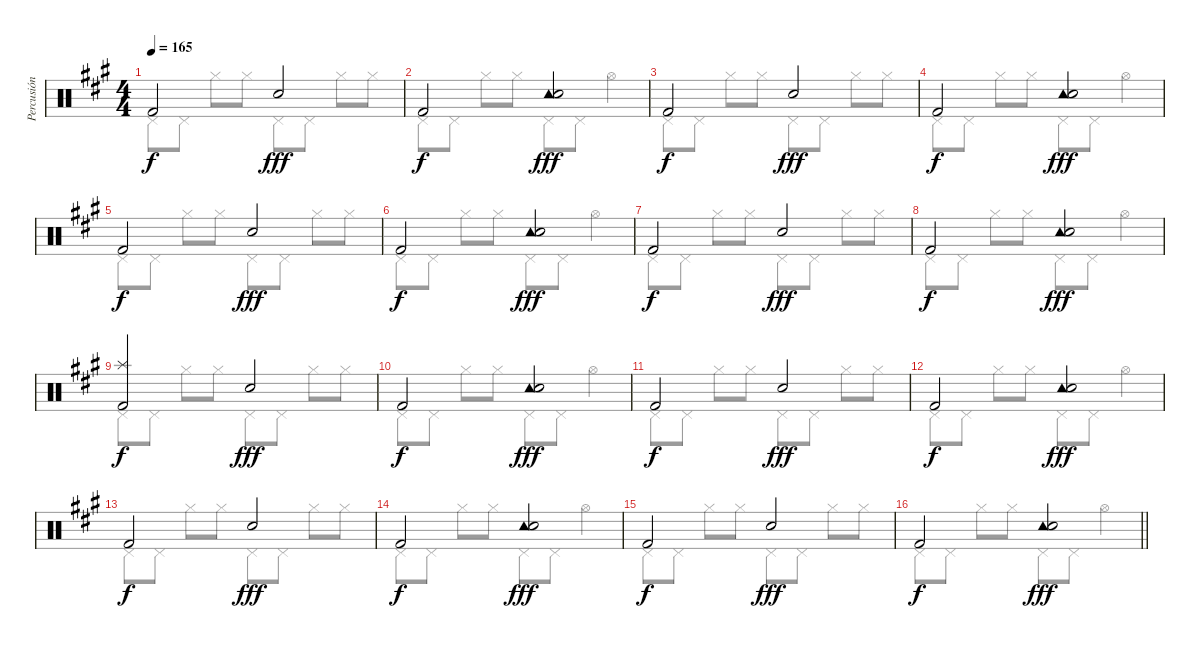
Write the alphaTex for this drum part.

\track ("Percusión" "Percusión") {instrument percussion}
\staff {score}
\articulation defaults
\voice
\ts (4 4)
\tempo 165
\clef neutral
\ks a "Kick (hit) 2".2{dy f} "Snare (hit) 2".2{dy fff}
|
"Kick (hit) 2".2{dy f} ("Tambourine (hit)" "Snare (hit) 2").2{dy fff} |
"Kick (hit) 2".2{dy f} "Snare (hit) 2".2{dy fff} |
"Kick (hit) 2".2{dy f} ("Tambourine (hit)" "Snare (hit) 2").2{dy fff} |
"Kick (hit) 2".2{dy f} "Snare (hit) 2".2{dy fff} |
"Kick (hit) 2".2{dy f} ("Tambourine (hit)" "Snare (hit) 2").2{dy fff} |
"Kick (hit) 2".2{dy f} "Snare (hit) 2".2{dy fff} |
"Kick (hit) 2".2{dy f} ("Tambourine (hit)" "Snare (hit) 2").2{dy fff} |
("Splash (hit)" "Kick (hit) 2").2{dy f} "Snare (hit) 2".2{dy fff} |
"Kick (hit) 2".2{dy f} ("Tambourine (hit)" "Snare (hit) 2").2{dy fff} |
"Kick (hit) 2".2{dy f} "Snare (hit) 2".2{dy fff} |
"Kick (hit) 2".2{dy f} ("Tambourine (hit)" "Snare (hit) 2").2{dy fff} |
"Kick (hit) 2".2{dy f} "Snare (hit) 2".2{dy fff} |
"Kick (hit) 2".2{dy f} ("Tambourine (hit)" "Snare (hit) 2").2{dy fff} |
"Kick (hit) 2".2{dy f} "Snare (hit) 2".2{dy fff} |
\barLineRight lightlight "Kick (hit) 2".2{dy f}
("Tambourine (hit)" "Snare (hit) 2").2{dy fff}
\voice
\clef neutral
\ottava regular
\simile none
\ks a "Pedal Hi-Hat (hit)".8{dy f} "Pedal Hi-Hat (hit)".8 "Hi-Hat (closed)".8 "Hi-Hat (closed)".8 "Pedal Hi-Hat (hit)".8 "Pedal Hi-Hat (hit)".8 "Hi-Hat (closed)".8 "Hi-Hat (closed)".8
|
"Pedal Hi-Hat (hit)".8 "Pedal Hi-Hat (hit)".8 "Hi-Hat (closed)".8 "Hi-Hat (closed)".8 "Pedal Hi-Hat (hit)".8 "Pedal Hi-Hat (hit)".8 "Hi-Hat (open)".4 |
"Pedal Hi-Hat (hit)".8 "Pedal Hi-Hat (hit)".8 "Hi-Hat (closed)".8 "Hi-Hat (closed)".8 "Pedal Hi-Hat (hit)".8 "Pedal Hi-Hat (hit)".8 "Hi-Hat (closed)".8 "Hi-Hat (closed)".8 |
"Pedal Hi-Hat (hit)".8 "Pedal Hi-Hat (hit)".8 "Hi-Hat (closed)".8 "Hi-Hat (closed)".8 "Pedal Hi-Hat (hit)".8 "Pedal Hi-Hat (hit)".8 "Hi-Hat (open)".4 |
"Pedal Hi-Hat (hit)".8 "Pedal Hi-Hat (hit)".8 "Hi-Hat (closed)".8 "Hi-Hat (closed)".8 "Pedal Hi-Hat (hit)".8 "Pedal Hi-Hat (hit)".8 "Hi-Hat (closed)".8 "Hi-Hat (closed)".8 |
"Pedal Hi-Hat (hit)".8 "Pedal Hi-Hat (hit)".8 "Hi-Hat (closed)".8 "Hi-Hat (closed)".8 "Pedal Hi-Hat (hit)".8 "Pedal Hi-Hat (hit)".8 "Hi-Hat (open)".4 |
"Pedal Hi-Hat (hit)".8 "Pedal Hi-Hat (hit)".8 "Hi-Hat (closed)".8 "Hi-Hat (closed)".8 "Pedal Hi-Hat (hit)".8 "Pedal Hi-Hat (hit)".8 "Hi-Hat (closed)".8 "Hi-Hat (closed)".8 |
"Pedal Hi-Hat (hit)".8 "Pedal Hi-Hat (hit)".8 "Hi-Hat (closed)".8 "Hi-Hat (closed)".8 "Pedal Hi-Hat (hit)".8 "Pedal Hi-Hat (hit)".8 "Hi-Hat (open)".4 |
"Pedal Hi-Hat (hit)".8 "Pedal Hi-Hat (hit)".8 "Hi-Hat (closed)".8 "Hi-Hat (closed)".8 "Pedal Hi-Hat (hit)".8 "Pedal Hi-Hat (hit)".8 "Hi-Hat (closed)".8 "Hi-Hat (closed)".8 |
"Pedal Hi-Hat (hit)".8 "Pedal Hi-Hat (hit)".8 "Hi-Hat (closed)".8 "Hi-Hat (closed)".8 "Pedal Hi-Hat (hit)".8 "Pedal Hi-Hat (hit)".8 "Hi-Hat (open)".4 |
"Pedal Hi-Hat (hit)".8 "Pedal Hi-Hat (hit)".8 "Hi-Hat (closed)".8 "Hi-Hat (closed)".8 "Pedal Hi-Hat (hit)".8 "Pedal Hi-Hat (hit)".8 "Hi-Hat (closed)".8 "Hi-Hat (closed)".8 |
"Pedal Hi-Hat (hit)".8 "Pedal Hi-Hat (hit)".8 "Hi-Hat (closed)".8 "Hi-Hat (closed)".8 "Pedal Hi-Hat (hit)".8 "Pedal Hi-Hat (hit)".8 "Hi-Hat (open)".4 |
"Pedal Hi-Hat (hit)".8 "Pedal Hi-Hat (hit)".8 "Hi-Hat (closed)".8 "Hi-Hat (closed)".8 "Pedal Hi-Hat (hit)".8 "Pedal Hi-Hat (hit)".8 "Hi-Hat (closed)".8 "Hi-Hat (closed)".8 |
"Pedal Hi-Hat (hit)".8 "Pedal Hi-Hat (hit)".8 "Hi-Hat (closed)".8 "Hi-Hat (closed)".8 "Pedal Hi-Hat (hit)".8 "Pedal Hi-Hat (hit)".8 "Hi-Hat (open)".4 |
"Pedal Hi-Hat (hit)".8 "Pedal Hi-Hat (hit)".8 "Hi-Hat (closed)".8 "Hi-Hat (closed)".8 "Pedal Hi-Hat (hit)".8 "Pedal Hi-Hat (hit)".8 "Hi-Hat (closed)".8 "Hi-Hat (closed)".8 |
\barLineRight lightlight "Pedal Hi-Hat (hit)".8 "Pedal Hi-Hat (hit)".8 "Hi-Hat (closed)".8 "Hi-Hat (closed)".8 "Pedal Hi-Hat (hit)".8 "Pedal Hi-Hat (hit)".8 "Hi-Hat (open)".4
